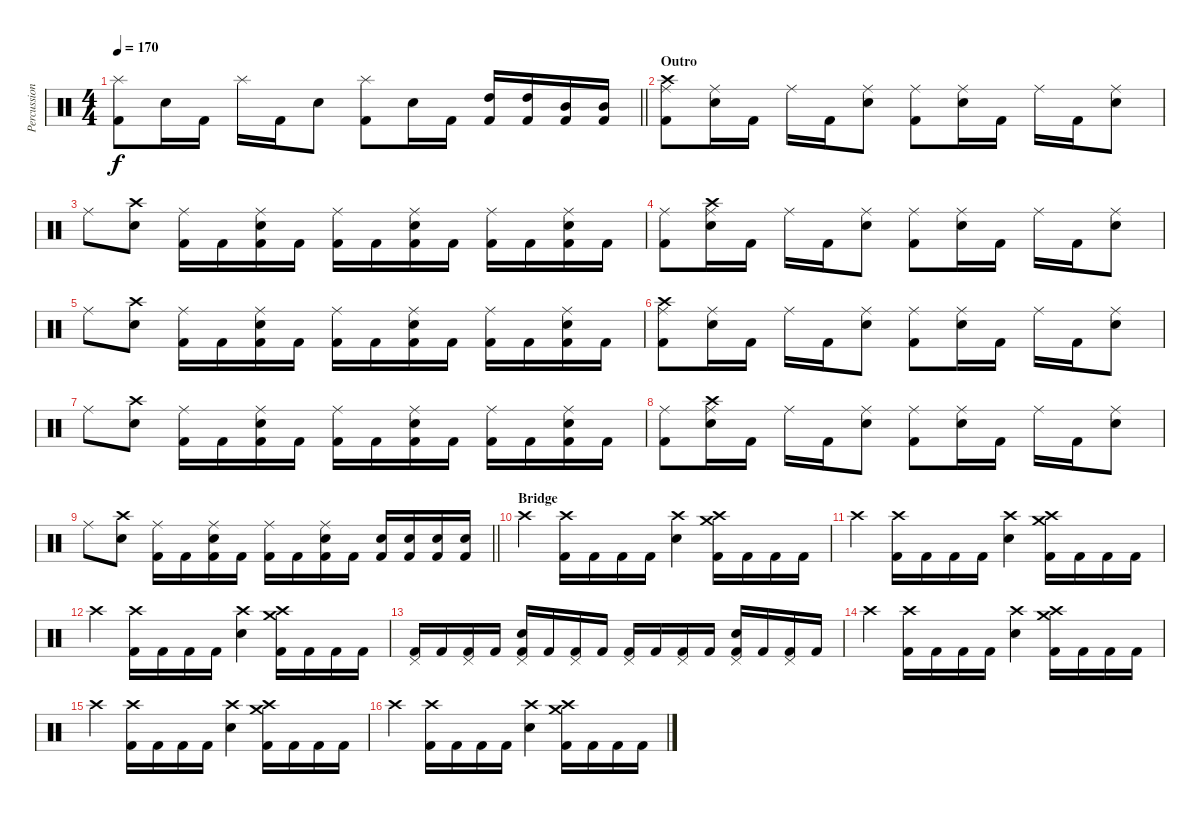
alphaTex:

\track ("Percussion" "Percussion") {instrument percussion}
\staff {score}
\articulation defaults
\ts (4 4)
\tempo 170
\clef neutral
\barLineRight lightlight
\ks c
("Splash (hit)" "Kick (hit) 2").8{dy f} "Snare (hit) 2".16 "Kick (hit) 2".16 "Splash (hit)".16 "Kick (hit) 2".16 "Snare (hit) 2".8 ("Splash (hit)" "Kick (hit) 2").8 "Snare (hit) 2".16 "Kick (hit) 2".16 ("High Tom (hit)" "Kick (hit) 2").16 ("High Tom (hit)" "Kick (hit) 2").16 ("Mid Tom (hit)" "Kick (hit) 2").16 ("Mid Tom (hit)" "Kick (hit) 2").16 |
\section ("" "Outro")
("Ride (middle)" "Crash high (hit)" "Kick (hit) 2").8 ("Ride (middle)" "Snare (hit) 2").16 "Kick (hit) 2".16 "Ride (middle)".16 "Kick (hit) 2".16 ("Ride (middle)" "Snare (hit) 2").8 ("Ride (middle)" "Kick (hit) 2").8 ("Ride (middle)" "Snare (hit) 2").16 "Kick (hit) 2".16 "Ride (middle)".16 "Kick (hit) 2".16 ("Ride (middle)" "Snare (hit) 2").8 |
"Ride (middle)".8 ("Crash high (hit)" "Snare (hit) 2").8 ("Ride (middle)" "Kick (hit) 2").16 "Kick (hit) 2".16 ("Ride (middle)" "Snare (hit) 2" "Kick (hit) 2").16 "Kick (hit) 2".16 ("Ride (middle)" "Kick (hit) 2").16 "Kick (hit) 2".16 ("Ride (middle)" "Snare (hit) 2" "Kick (hit) 2").16 "Kick (hit) 2".16 ("Ride (middle)" "Kick (hit) 2").16 "Kick (hit) 2".16 ("Ride (middle)" "Snare (hit) 2" "Kick (hit) 2").16 "Kick (hit) 2".16 |
("Ride (middle)" "Kick (hit) 2").8 ("Ride (middle)" "Crash high (hit)" "Snare (hit) 2").16 "Kick (hit) 2".16 "Ride (middle)".16 "Kick (hit) 2".16 ("Ride (middle)" "Snare (hit) 2").8 ("Ride (middle)" "Kick (hit) 2").8 ("Ride (middle)" "Snare (hit) 2").16 "Kick (hit) 2".16 "Ride (middle)".16 "Kick (hit) 2".16 ("Ride (middle)" "Snare (hit) 2").8 |
"Ride (middle)".8 ("Crash high (hit)" "Snare (hit) 2").8 ("Ride (middle)" "Kick (hit) 2").16 "Kick (hit) 2".16 ("Ride (middle)" "Snare (hit) 2" "Kick (hit) 2").16 "Kick (hit) 2".16 ("Ride (middle)" "Kick (hit) 2").16 "Kick (hit) 2".16 ("Ride (middle)" "Snare (hit) 2" "Kick (hit) 2").16 "Kick (hit) 2".16 ("Ride (middle)" "Kick (hit) 2").16 "Kick (hit) 2".16 ("Ride (middle)" "Snare (hit) 2" "Kick (hit) 2").16 "Kick (hit) 2".16 |
("Ride (middle)" "Crash high (hit)" "Kick (hit) 2").8 ("Ride (middle)" "Snare (hit) 2").16 "Kick (hit) 2".16 "Ride (middle)".16 "Kick (hit) 2".16 ("Ride (middle)" "Snare (hit) 2").8 ("Ride (middle)" "Kick (hit) 2").8 ("Ride (middle)" "Snare (hit) 2").16 "Kick (hit) 2".16 "Ride (middle)".16 "Kick (hit) 2".16 ("Ride (middle)" "Snare (hit) 2").8 |
"Ride (middle)".8 ("Crash high (hit)" "Snare (hit) 2").8 ("Ride (middle)" "Kick (hit) 2").16 "Kick (hit) 2".16 ("Ride (middle)" "Snare (hit) 2" "Kick (hit) 2").16 "Kick (hit) 2".16 ("Ride (middle)" "Kick (hit) 2").16 "Kick (hit) 2".16 ("Ride (middle)" "Snare (hit) 2" "Kick (hit) 2").16 "Kick (hit) 2".16 ("Ride (middle)" "Kick (hit) 2").16 "Kick (hit) 2".16 ("Ride (middle)" "Snare (hit) 2" "Kick (hit) 2").16 "Kick (hit) 2".16 |
("Ride (middle)" "Kick (hit) 2").8 ("Ride (middle)" "Crash high (hit)" "Snare (hit) 2").16 "Kick (hit) 2".16 "Ride (middle)".16 "Kick (hit) 2".16 ("Ride (middle)" "Snare (hit) 2").8 ("Ride (middle)" "Kick (hit) 2").8 ("Ride (middle)" "Snare (hit) 2").16 "Kick (hit) 2".16 "Ride (middle)".16 "Kick (hit) 2".16 ("Ride (middle)" "Snare (hit) 2").8 |
\barLineRight lightlight "Ride (middle)".8
("Crash high (hit)" "Snare (hit) 2").8 ("Ride (middle)" "Kick (hit) 2").16 "Kick (hit) 2".16 ("Ride (middle)" "Snare (hit) 2" "Kick (hit) 2").16 "Kick (hit) 2".16 ("Ride (middle)" "Kick (hit) 2").16 "Kick (hit) 2".16 ("Ride (middle)" "Snare (hit) 2" "Kick (hit) 2").16 "Kick (hit) 2".16 ("Snare (hit) 2" "Kick (hit) 2").16 ("Snare (hit) 2" "Kick (hit) 2").16 ("Snare (hit) 2" "Kick (hit) 2").16 ("Snare (hit) 2" "Kick (hit) 2").16 |
\section ("" "Bridge")
"Crash high (hit)".4 ("Crash high (hit)" "Kick (hit) 2").16 "Kick (hit) 2".16 "Kick (hit) 2".16 "Kick (hit) 2".16 ("Crash high (hit)" "Snare (hit) 2").4 ("Crash high (hit)" "Crash medium (hit)" "Kick (hit) 2").16 "Kick (hit) 2".16 "Kick (hit) 2".16 "Kick (hit) 2".16 |
"Crash high (hit)".4 ("Crash high (hit)" "Kick (hit) 2").16 "Kick (hit) 2".16 "Kick (hit) 2".16 "Kick (hit) 2".16 ("Crash high (hit)" "Snare (hit) 2").4 ("Crash high (hit)" "Crash medium (hit)" "Kick (hit) 2").16 "Kick (hit) 2".16 "Kick (hit) 2".16 "Kick (hit) 2".16 |
"Crash high (hit)".4 ("Crash high (hit)" "Kick (hit) 2").16 "Kick (hit) 2".16 "Kick (hit) 2".16 "Kick (hit) 2".16 ("Crash high (hit)" "Snare (hit) 2").4 ("Crash high (hit)" "Crash medium (hit)" "Kick (hit) 2").16 "Kick (hit) 2".16 "Kick (hit) 2".16 "Kick (hit) 2".16 |
("Pedal Hi-Hat (hit)" "Kick (hit) 2").16 "Kick (hit) 2".16 ("Pedal Hi-Hat (hit)" "Kick (hit) 2").16 "Kick (hit) 2".16 ("Pedal Hi-Hat (hit)" "Snare (hit) 2" "Kick (hit) 2").16 "Kick (hit) 2".16 ("Pedal Hi-Hat (hit)" "Kick (hit) 2").16 "Kick (hit) 2".16 ("Pedal Hi-Hat (hit)" "Kick (hit) 2").16 "Kick (hit) 2".16 ("Pedal Hi-Hat (hit)" "Kick (hit) 2").16 "Kick (hit) 2".16 ("Pedal Hi-Hat (hit)" "Snare (hit) 2" "Kick (hit) 2").16 "Kick (hit) 2".16 ("Pedal Hi-Hat (hit)" "Kick (hit) 2").16 "Kick (hit) 2".16 |
"Crash high (hit)".4 ("Crash high (hit)" "Kick (hit) 2").16 "Kick (hit) 2".16 "Kick (hit) 2".16 "Kick (hit) 2".16 ("Crash high (hit)" "Snare (hit) 2").4 ("Crash high (hit)" "Crash medium (hit)" "Kick (hit) 2").16 "Kick (hit) 2".16 "Kick (hit) 2".16 "Kick (hit) 2".16 |
"Crash high (hit)".4 ("Crash high (hit)" "Kick (hit) 2").16 "Kick (hit) 2".16 "Kick (hit) 2".16 "Kick (hit) 2".16 ("Crash high (hit)" "Snare (hit) 2").4 ("Crash high (hit)" "Crash medium (hit)" "Kick (hit) 2").16 "Kick (hit) 2".16 "Kick (hit) 2".16 "Kick (hit) 2".16 |
"Crash high (hit)".4 ("Crash high (hit)" "Kick (hit) 2").16 "Kick (hit) 2".16 "Kick (hit) 2".16 "Kick (hit) 2".16 ("Crash high (hit)" "Snare (hit) 2").4 ("Crash high (hit)" "Crash medium (hit)" "Kick (hit) 2").16 "Kick (hit) 2".16 "Kick (hit) 2".16 "Kick (hit) 2".16
